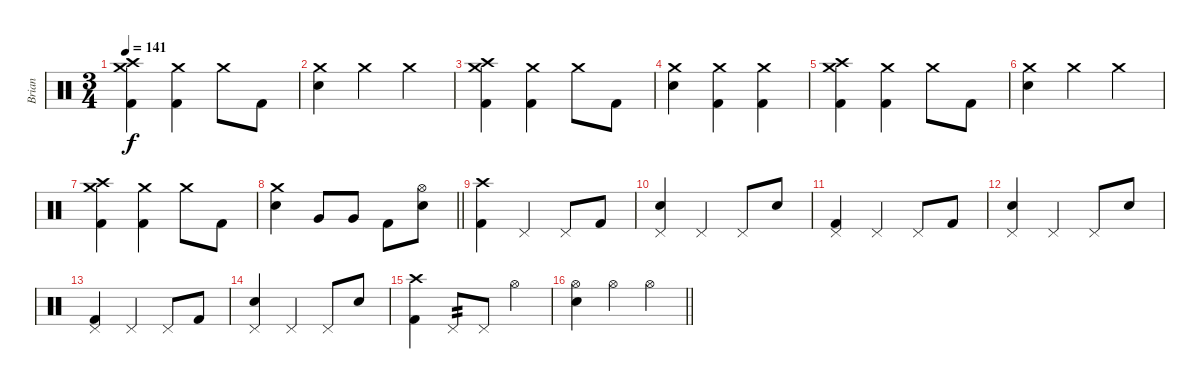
\track ("Brian" "Brian") {instrument percussion}
\staff {score}
\articulation defaults
\ts (3 4)
\tempo 141
\clef neutral
\ks c
("Crash high (hit)" "Crash medium (hit)" "Kick (hit) 2").4{dy f} ("Crash medium (hit)" "Kick (hit) 2").4 "Crash medium (hit)".8 "Kick (hit) 2".8 |
("Crash medium (hit)" "Electric Snare (hit)").4 "Crash medium (hit)".4 "Crash medium (hit)".4 |
("Crash high (hit)" "Crash medium (hit)" "Kick (hit) 2").4 ("Crash medium (hit)" "Kick (hit) 2").4 "Crash medium (hit)".8 "Kick (hit) 2".8 |
("Crash medium (hit)" "Electric Snare (hit)").4 ("Crash medium (hit)" "Kick (hit) 2").4 ("Crash medium (hit)" "Kick (hit) 2").4 |
("Crash high (hit)" "Crash medium (hit)" "Kick (hit) 2").4 ("Crash medium (hit)" "Kick (hit) 2").4 "Crash medium (hit)".8 "Kick (hit) 2".8 |
("Crash medium (hit)" "Electric Snare (hit)").4 "Crash medium (hit)".4 "Crash medium (hit)".4 |
("Crash high (hit)" "Crash medium (hit)" "Kick (hit) 2").4 ("Crash medium (hit)" "Kick (hit) 2").4 "Crash medium (hit)".8 "Kick (hit) 2".8 |
\barLineRight lightlight
("Crash medium (hit)" "Electric Snare (hit)").4 "Very Low Tom (hit)".8 "Very Low Tom (hit)".8 "Kick (hit) 2".8 ("Hi-Hat (open)" "Electric Snare (hit)").8 |
("Crash high (hit)" "Kick (hit) 2").4 "Pedal Hi-Hat (hit)".4 "Pedal Hi-Hat (hit)".8 "Kick (hit) 2".8 |
("Pedal Hi-Hat (hit)" "Electric Snare (hit)").4 "Pedal Hi-Hat (hit)".4 "Pedal Hi-Hat (hit)".8 "Electric Snare (hit)".8 |
("Pedal Hi-Hat (hit)" "Kick (hit) 2").4 "Pedal Hi-Hat (hit)".4 "Pedal Hi-Hat (hit)".8 "Kick (hit) 2".8 |
("Pedal Hi-Hat (hit)" "Electric Snare (hit)").4 "Pedal Hi-Hat (hit)".4 "Pedal Hi-Hat (hit)".8 "Electric Snare (hit)".8 |
("Pedal Hi-Hat (hit)" "Kick (hit) 2").4 "Pedal Hi-Hat (hit)".4 "Pedal Hi-Hat (hit)".8 "Kick (hit) 2".8 |
("Pedal Hi-Hat (hit)" "Electric Snare (hit)").4 "Pedal Hi-Hat (hit)".4 "Pedal Hi-Hat (hit)".8 "Electric Snare (hit)".8 |
("Crash high (hit)" "Kick (hit) 2").4 "Pedal Hi-Hat (hit)".8{tp 2} "Pedal Hi-Hat (hit)".8 "Hi-Hat (open)".4 |
\barLineRight lightlight
("Hi-Hat (open)" "Electric Snare (hit)").4 "Hi-Hat (open)".4 "Hi-Hat (open)".4
